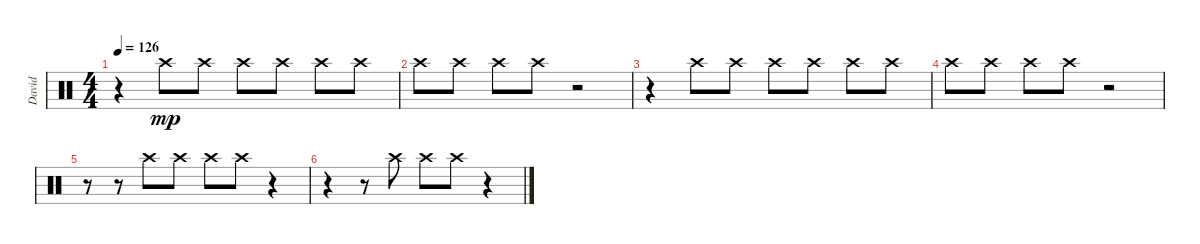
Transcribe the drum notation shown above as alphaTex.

\track ("David" "David") {instrument percussion}
\staff {score}
\articulation defaults
\ts (4 4)
\tempo 126
\clef neutral
\ks c
r.4{dy mp} "Crash high (hit)".8 "Crash high (hit)".8 "Crash high (hit)".8 "Crash high (hit)".8 "Crash high (hit)".8 "Crash high (hit)".8 |
"Crash high (hit)".8 "Crash high (hit)".8 "Crash high (hit)".8 "Crash high (hit)".8 r.2 |
r.4 "Crash high (hit)".8 "Crash high (hit)".8 "Crash high (hit)".8 "Crash high (hit)".8 "Crash high (hit)".8 "Crash high (hit)".8 |
"Crash high (hit)".8 "Crash high (hit)".8 "Crash high (hit)".8 "Crash high (hit)".8 r.2 |
r.8 r.8 "Crash high (hit)".8 "Crash high (hit)".8 "Crash high (hit)".8 "Crash high (hit)".8 r.4 |
r.4 r.8 "Crash high (hit)".8 "Crash high (hit)".8 "Crash high (hit)".8 r.4
